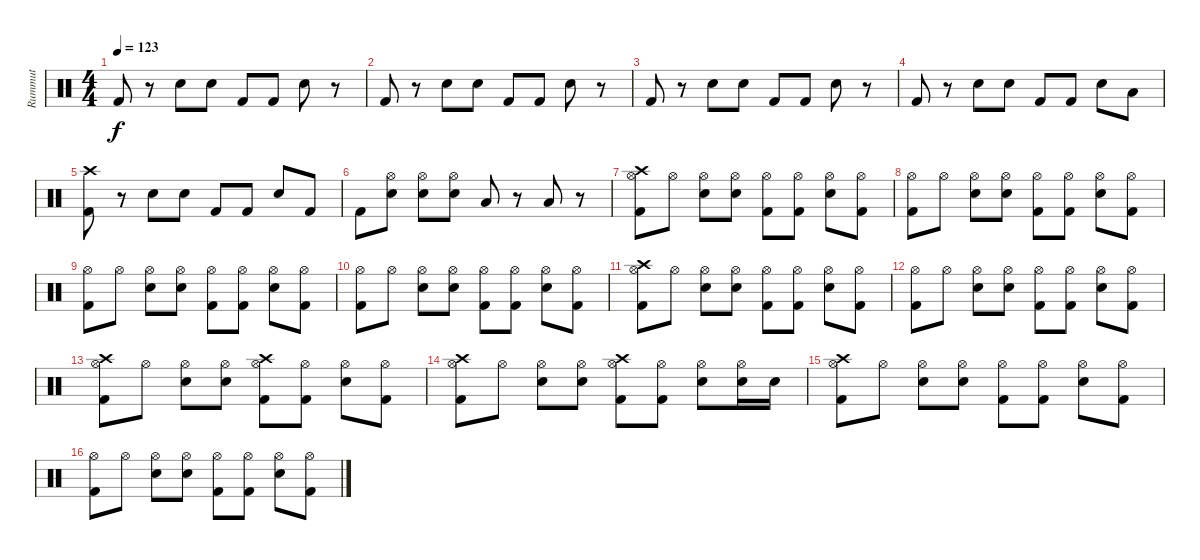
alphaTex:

\track ("Rummut" "Rummut") {instrument percussion}
\staff {score}
\articulation defaults
\ts (4 4)
\tempo 123
\clef neutral
\ks c "Kick (hit) 2".8{dy f}
r.8 "Electric Snare (hit)".8 "Electric Snare (hit)".8 "Kick (hit) 2".8 "Kick (hit) 2".8 "Electric Snare (hit)".8 r.8 |
"Kick (hit) 2".8 r.8 "Electric Snare (hit)".8 "Electric Snare (hit)".8 "Kick (hit) 2".8 "Kick (hit) 2".8 "Electric Snare (hit)".8 r.8 |
"Kick (hit) 2".8 r.8 "Electric Snare (hit)".8 "Electric Snare (hit)".8 "Kick (hit) 2".8 "Kick (hit) 2".8 "Electric Snare (hit)".8 r.8 |
"Kick (hit) 2".8 r.8 "Electric Snare (hit)".8 "Electric Snare (hit)".8 "Kick (hit) 2".8 "Kick (hit) 2".8 "Electric Snare (hit)".8 "Low Tom (hit)".8 |
("Crash high (hit)" "Kick (hit) 2").8 r.8 "Electric Snare (hit)".8 "Electric Snare (hit)".8 "Kick (hit) 2".8 "Kick (hit) 2".8 "Electric Snare (hit)".8 "Kick (hit) 2".8 |
"Kick (hit) 2".8 ("Hi-Hat (open)" "Electric Snare (hit)").8 ("Hi-Hat (open)" "Electric Snare (hit)").8 ("Hi-Hat (open)" "Electric Snare (hit)").8 "Low Tom (hit)".8 r.8 "Low Tom (hit)".8 r.8 |
("Crash high (hit)" "Hi-Hat (open)" "Kick (hit) 2").8 "Hi-Hat (open)".8 ("Hi-Hat (open)" "Electric Snare (hit)").8 ("Hi-Hat (open)" "Electric Snare (hit)").8 ("Hi-Hat (open)" "Kick (hit) 2").8 ("Hi-Hat (open)" "Kick (hit) 2").8 ("Hi-Hat (open)" "Electric Snare (hit)").8 ("Hi-Hat (open)" "Kick (hit) 2").8 |
("Hi-Hat (open)" "Kick (hit) 2").8 "Hi-Hat (open)".8 ("Hi-Hat (open)" "Electric Snare (hit)").8 ("Hi-Hat (open)" "Electric Snare (hit)").8 ("Hi-Hat (open)" "Kick (hit) 2").8 ("Hi-Hat (open)" "Kick (hit) 2").8 ("Hi-Hat (open)" "Electric Snare (hit)").8 ("Hi-Hat (open)" "Kick (hit) 2").8 |
("Hi-Hat (open)" "Kick (hit) 2").8 "Hi-Hat (open)".8 ("Hi-Hat (open)" "Electric Snare (hit)").8 ("Hi-Hat (open)" "Electric Snare (hit)").8 ("Hi-Hat (open)" "Kick (hit) 2").8 ("Hi-Hat (open)" "Kick (hit) 2").8 ("Hi-Hat (open)" "Electric Snare (hit)").8 ("Hi-Hat (open)" "Kick (hit) 2").8 |
("Hi-Hat (open)" "Kick (hit) 2").8 "Hi-Hat (open)".8 ("Hi-Hat (open)" "Electric Snare (hit)").8 ("Hi-Hat (open)" "Electric Snare (hit)").8 ("Hi-Hat (open)" "Kick (hit) 2").8 ("Hi-Hat (open)" "Kick (hit) 2").8 ("Hi-Hat (open)" "Electric Snare (hit)").8 ("Hi-Hat (open)" "Kick (hit) 2").8 |
("Crash high (hit)" "Hi-Hat (open)" "Kick (hit) 2").8 "Hi-Hat (open)".8 ("Hi-Hat (open)" "Electric Snare (hit)").8 ("Hi-Hat (open)" "Electric Snare (hit)").8 ("Hi-Hat (open)" "Kick (hit) 2").8 ("Hi-Hat (open)" "Kick (hit) 2").8 ("Hi-Hat (open)" "Electric Snare (hit)").8 ("Hi-Hat (open)" "Kick (hit) 2").8 |
("Hi-Hat (open)" "Kick (hit) 2").8 "Hi-Hat (open)".8 ("Hi-Hat (open)" "Electric Snare (hit)").8 ("Hi-Hat (open)" "Electric Snare (hit)").8 ("Hi-Hat (open)" "Kick (hit) 2").8 ("Hi-Hat (open)" "Kick (hit) 2").8 ("Hi-Hat (open)" "Electric Snare (hit)").8 ("Hi-Hat (open)" "Kick (hit) 2").8 |
("Crash high (hit)" "Hi-Hat (open)" "Kick (hit) 2").8 "Hi-Hat (open)".8 ("Hi-Hat (open)" "Electric Snare (hit)").8 ("Hi-Hat (open)" "Electric Snare (hit)").8 ("Crash high (hit)" "Hi-Hat (open)" "Kick (hit) 2").8 ("Hi-Hat (open)" "Kick (hit) 2").8 ("Hi-Hat (open)" "Electric Snare (hit)").8 ("Hi-Hat (open)" "Kick (hit) 2").8 |
("Crash high (hit)" "Hi-Hat (open)" "Kick (hit) 2").8 "Hi-Hat (open)".8 ("Hi-Hat (open)" "Electric Snare (hit)").8 ("Hi-Hat (open)" "Electric Snare (hit)").8 ("Crash high (hit)" "Hi-Hat (open)" "Kick (hit) 2").8 ("Hi-Hat (open)" "Kick (hit) 2").8 ("Hi-Hat (open)" "Electric Snare (hit)").8 ("Hi-Hat (open)" "Electric Snare (hit)").16 "Electric Snare (hit)".16 |
("Crash high (hit)" "Hi-Hat (open)" "Kick (hit) 2").8 "Hi-Hat (open)".8 ("Hi-Hat (open)" "Electric Snare (hit)").8 ("Hi-Hat (open)" "Electric Snare (hit)").8 ("Hi-Hat (open)" "Kick (hit) 2").8 ("Hi-Hat (open)" "Kick (hit) 2").8 ("Hi-Hat (open)" "Electric Snare (hit)").8 ("Hi-Hat (open)" "Kick (hit) 2").8 |
("Hi-Hat (open)" "Kick (hit) 2").8 "Hi-Hat (open)".8 ("Hi-Hat (open)" "Electric Snare (hit)").8 ("Hi-Hat (open)" "Electric Snare (hit)").8 ("Hi-Hat (open)" "Kick (hit) 2").8 ("Hi-Hat (open)" "Kick (hit) 2").8 ("Hi-Hat (open)" "Electric Snare (hit)").8 ("Hi-Hat (open)" "Kick (hit) 2").8
